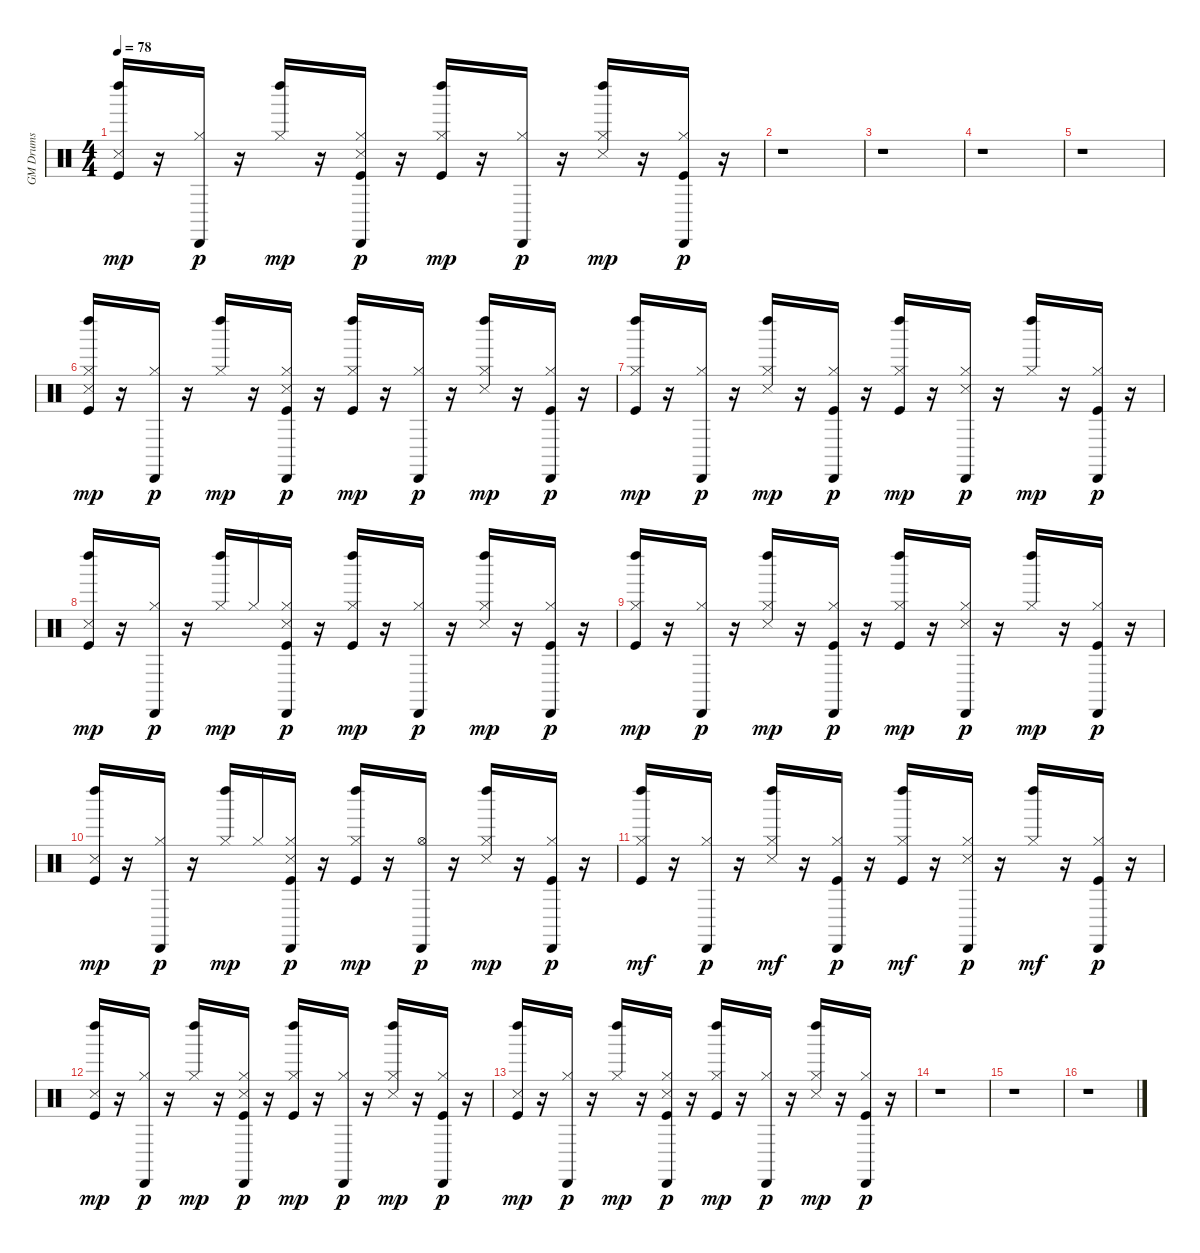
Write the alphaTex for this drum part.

\track ("GM Drums" "GM Drums") {instrument percussion}
\staff {score}
\articulation defaults
\ts (4 4)
\tempo 78
\clef neutral
\ks c
("Kick (hit)" "Snare (side stick) 3" "Left Maraca (hit)").16{dy mp} r.16 ("Hi-Hat (closed)" "Cabasa (hit)").16{dy p} r.16 ("Hi-Hat (closed)" "Left Maraca (hit)").16{dy mp} r.16 ("Kick (hit)" "Snare (side stick) 3" "Hi-Hat (closed)" "Cabasa (hit)").16{dy p} r.16 ("Kick (hit)" "Hi-Hat (closed)" "Left Maraca (hit)").16{dy mp} r.16 ("Hi-Hat (closed)" "Cabasa (hit)").16{dy p} r.16 ("Snare (side stick) 3" "Hi-Hat (closed)" "Left Maraca (hit)").16{dy mp} r.16 ("Kick (hit)" "Hi-Hat (closed)" "Cabasa (hit)").16{dy p} r.16 |
r.1 |
r.1 |
r.1 |
r.1 |
("Kick (hit)" "Snare (side stick) 3" "Hi-Hat (closed)" "Left Maraca (hit)").16{dy mp} r.16 ("Hi-Hat (closed)" "Cabasa (hit)").16{dy p} r.16 ("Hi-Hat (closed)" "Left Maraca (hit)").16{dy mp} r.16 ("Kick (hit)" "Snare (side stick) 3" "Hi-Hat (closed)" "Cabasa (hit)").16{dy p} r.16 ("Kick (hit)" "Hi-Hat (closed)" "Left Maraca (hit)").16{dy mp} r.16 ("Hi-Hat (closed)" "Cabasa (hit)").16{dy p} r.16 ("Snare (side stick) 3" "Hi-Hat (closed)" "Left Maraca (hit)").16{dy mp} r.16 ("Kick (hit)" "Hi-Hat (closed)" "Cabasa (hit)").16{dy p} r.16 |
("Kick (hit)" "Hi-Hat (closed)" "Left Maraca (hit)").16{dy mp} r.16 ("Hi-Hat (closed)" "Cabasa (hit)").16{dy p} r.16 ("Snare (side stick) 3" "Hi-Hat (closed)" "Left Maraca (hit)").16{dy mp} r.16 ("Kick (hit)" "Hi-Hat (closed)" "Cabasa (hit)").16{dy p} r.16 ("Kick (hit)" "Hi-Hat (closed)" "Left Maraca (hit)").16{dy mp} r.16 ("Snare (side stick) 3" "Hi-Hat (closed)" "Cabasa (hit)").16{dy p} r.16 ("Hi-Hat (closed)" "Left Maraca (hit)").16{dy mp} r.16 ("Kick (hit)" "Hi-Hat (closed)" "Cabasa (hit)").16{dy p} r.16 |
("Kick (hit)" "Snare (side stick) 3" "Left Maraca (hit)").16{dy mp} r.16 ("Hi-Hat (closed)" "Cabasa (hit)").16{dy p} r.16 ("Hi-Hat (closed)" "Left Maraca (hit)").16{dy mp} "Hi-Hat (closed)".16 ("Kick (hit)" "Snare (side stick) 3" "Hi-Hat (closed)" "Cabasa (hit)").16{dy p} r.16 ("Kick (hit)" "Hi-Hat (closed)" "Left Maraca (hit)").16{dy mp} r.16 ("Hi-Hat (closed)" "Cabasa (hit)").16{dy p} r.16 ("Snare (side stick) 3" "Hi-Hat (closed)" "Left Maraca (hit)").16{dy mp} r.16 ("Kick (hit)" "Hi-Hat (closed)" "Cabasa (hit)").16{dy p} r.16 |
("Kick (hit)" "Hi-Hat (closed)" "Left Maraca (hit)").16{dy mp} r.16 ("Hi-Hat (closed)" "Cabasa (hit)").16{dy p} r.16 ("Snare (side stick) 3" "Hi-Hat (closed)" "Left Maraca (hit)").16{dy mp} r.16 ("Kick (hit)" "Hi-Hat (closed)" "Cabasa (hit)").16{dy p} r.16 ("Kick (hit)" "Hi-Hat (closed)" "Left Maraca (hit)").16{dy mp} r.16 ("Snare (side stick) 3" "Hi-Hat (closed)" "Cabasa (hit)").16{dy p} r.16 ("Hi-Hat (closed)" "Left Maraca (hit)").16{dy mp} r.16 ("Kick (hit)" "Hi-Hat (closed)" "Cabasa (hit)").16{dy p} r.16 |
("Kick (hit)" "Snare (side stick) 3" "Left Maraca (hit)").16{dy mp} r.16 ("Hi-Hat (closed)" "Cabasa (hit)").16{dy p} r.16 ("Hi-Hat (closed)" "Left Maraca (hit)").16{dy mp} "Hi-Hat (closed)".16 ("Kick (hit)" "Snare (side stick) 3" "Hi-Hat (closed)" "Cabasa (hit)").16{dy p} r.16 ("Kick (hit)" "Hi-Hat (closed)" "Left Maraca (hit)").16{dy mp} r.16 ("Hi-Hat (open)" "Cabasa (hit)").16{dy p} r.16 ("Snare (side stick) 3" "Hi-Hat (closed)" "Left Maraca (hit)").16{dy mp} r.16 ("Kick (hit)" "Hi-Hat (closed)" "Cabasa (hit)").16{dy p} r.16 |
("Kick (hit)" "Hi-Hat (closed)" "Left Maraca (hit)").16{dy mf} r.16 ("Hi-Hat (closed)" "Cabasa (hit)").16{dy p} r.16 ("Snare (side stick) 3" "Hi-Hat (closed)" "Left Maraca (hit)").16{dy mf} r.16 ("Kick (hit)" "Hi-Hat (closed)" "Cabasa (hit)").16{dy p} r.16 ("Kick (hit)" "Hi-Hat (closed)" "Left Maraca (hit)").16{dy mf} r.16 ("Snare (side stick) 3" "Hi-Hat (closed)" "Cabasa (hit)").16{dy p} r.16 ("Hi-Hat (closed)" "Left Maraca (hit)").16{dy mf} r.16 ("Kick (hit)" "Hi-Hat (closed)" "Cabasa (hit)").16{dy p} r.16 |
("Kick (hit)" "Snare (side stick) 3" "Left Maraca (hit)").16{dy mp} r.16 ("Hi-Hat (closed)" "Cabasa (hit)").16{dy p} r.16 ("Hi-Hat (closed)" "Left Maraca (hit)").16{dy mp} r.16 ("Kick (hit)" "Snare (side stick) 3" "Hi-Hat (closed)" "Cabasa (hit)").16{dy p} r.16 ("Kick (hit)" "Hi-Hat (closed)" "Left Maraca (hit)").16{dy mp} r.16 ("Hi-Hat (closed)" "Cabasa (hit)").16{dy p} r.16 ("Snare (side stick) 3" "Hi-Hat (closed)" "Left Maraca (hit)").16{dy mp} r.16 ("Kick (hit)" "Hi-Hat (closed)" "Cabasa (hit)").16{dy p} r.16 |
("Kick (hit)" "Snare (side stick) 3" "Left Maraca (hit)").16{dy mp} r.16 ("Hi-Hat (closed)" "Cabasa (hit)").16{dy p} r.16 ("Hi-Hat (closed)" "Left Maraca (hit)").16{dy mp} r.16 ("Kick (hit)" "Snare (side stick) 3" "Hi-Hat (closed)" "Cabasa (hit)").16{dy p} r.16 ("Kick (hit)" "Hi-Hat (closed)" "Left Maraca (hit)").16{dy mp} r.16 ("Hi-Hat (closed)" "Cabasa (hit)").16{dy p} r.16 ("Snare (side stick) 3" "Hi-Hat (closed)" "Left Maraca (hit)").16{dy mp} r.16 ("Kick (hit)" "Hi-Hat (closed)" "Cabasa (hit)").16{dy p} r.16 |
r.1 |
r.1 |
r.1
